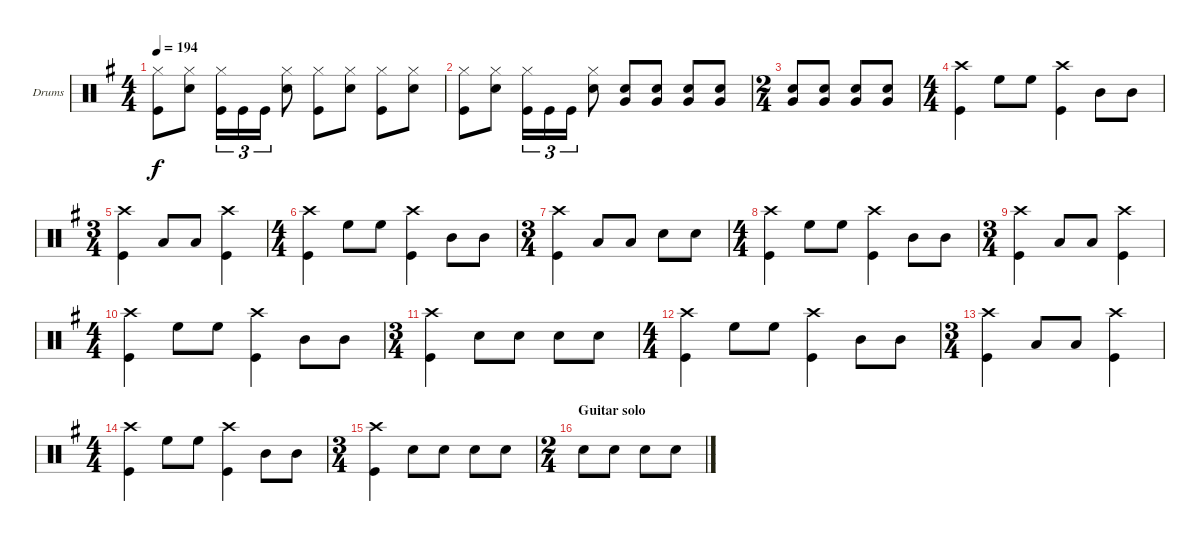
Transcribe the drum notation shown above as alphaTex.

\bracketExtendMode groupsimilarinstruments
\firstSystemTrackNameOrientation horizontal
\otherSystemsTrackNameOrientation horizontal
\track ("Drumkit" "Drums") {instrument percussion}
\staff {score}
\articulation defaults
\ts (4 4)
\tempo 194
\clef neutral
\scale
1.04288
\ks g
("Hi-Hat (closed)" "Kick (hit)").8{dy f} ("Hi-Hat (closed)" "Snare (hit) 2").8 ("Hi-Hat (closed)" "Kick (hit)").16{tu (3 2)} "Kick (hit)".16{tu (3 2)} "Kick (hit)".16{tu (3 2)} ("Hi-Hat (closed)" "Snare (hit) 2").8 ("Hi-Hat (closed)" "Kick (hit)").8 ("Hi-Hat (closed)" "Snare (hit) 2").8 ("Hi-Hat (closed)" "Kick (hit)").8 ("Hi-Hat (closed)" "Snare (hit) 2").8 |
\scale
0.957125 ("Hi-Hat (closed)" "Kick (hit)").8 ("Hi-Hat (closed)" "Snare (hit) 2").8 ("Hi-Hat (closed)" "Kick (hit)").16{tu (3 2)} "Kick (hit)".16{tu (3 2)} "Kick (hit)".16{tu (3 2)} ("Hi-Hat (closed)" "Snare (hit) 2").8 ("Very Low Tom (hit)" "Snare (hit) 2").8 ("Very Low Tom (hit)" "Snare (hit) 2").8 ("Very Low Tom (hit)" "Snare (hit) 2").8 ("Very Low Tom (hit)" "Snare (hit) 2").8 |
\ts (2 4)
\scale
1.07314 ("Very Low Tom (hit)" "Snare (hit) 2").8 ("Very Low Tom (hit)" "Snare (hit) 2").8 ("Very Low Tom (hit)" "Snare (hit) 2").8 ("Very Low Tom (hit)" "Snare (hit) 2").8 |
\ts (4 4)
\scale
0.92686 ("Crash high (hit)" "Kick (hit)").4 "High Floor Tom (hit)".8 "High Floor Tom (hit)".8 ("Crash high (hit)" "Kick (hit)").4 "Mid Tom (hit)".8 "Mid Tom (hit)".8 |
\ts (3 4)
\scale
1.07314 ("Crash high (hit)" "Kick (hit)").4 "Low Tom (hit)".8 "Low Tom (hit)".8 ("Crash high (hit)" "Kick (hit)").4 |
\ts (4 4)
\scale
0.92686 ("Crash high (hit)" "Kick (hit)").4 "High Floor Tom (hit)".8 "High Floor Tom (hit)".8 ("Crash high (hit)" "Kick (hit)").4 "Mid Tom (hit)".8 "Mid Tom (hit)".8 |
\ts (3 4)
\scale
1.07314 ("Crash high (hit)" "Kick (hit)").4 "Low Tom (hit)".8 "Low Tom (hit)".8 "Snare (hit) 2".8 "Snare (hit) 2".8 |
\ts (4 4)
\scale
0.92686 ("Crash high (hit)" "Kick (hit)").4 "High Floor Tom (hit)".8 "High Floor Tom (hit)".8 ("Crash high (hit)" "Kick (hit)").4 "Mid Tom (hit)".8 "Mid Tom (hit)".8 |
\ts (3 4)
\scale
1.07314 ("Crash high (hit)" "Kick (hit)").4 "Low Tom (hit)".8 "Low Tom (hit)".8 ("Crash high (hit)" "Kick (hit)").4 |
\ts (4 4)
\scale
0.92686 ("Crash high (hit)" "Kick (hit)").4 "High Floor Tom (hit)".8 "High Floor Tom (hit)".8 ("Crash high (hit)" "Kick (hit)").4 "Mid Tom (hit)".8 "Mid Tom (hit)".8 |
\ts (3 4)
\scale
1.07314 ("Crash high (hit)" "Kick (hit)").4 "Snare (hit) 2".8 "Snare (hit) 2".8 "Snare (hit) 2".8 "Snare (hit) 2".8 |
\ts (4 4)
\scale
0.92686 ("Crash high (hit)" "Kick (hit)").4 "High Floor Tom (hit)".8 "High Floor Tom (hit)".8 ("Crash high (hit)" "Kick (hit)").4 "Mid Tom (hit)".8 "Mid Tom (hit)".8 |
\ts (3 4)
\scale
1.07314 ("Crash high (hit)" "Kick (hit)").4 "Low Tom (hit)".8 "Low Tom (hit)".8 ("Crash high (hit)" "Kick (hit)").4 |
\ts (4 4)
\scale
0.92686 ("Crash high (hit)" "Kick (hit)").4 "High Floor Tom (hit)".8 "High Floor Tom (hit)".8 ("Crash high (hit)" "Kick (hit)").4 "Mid Tom (hit)".8 "Mid Tom (hit)".8 |
\ts (3 4)
\scale
1.07314 ("Crash high (hit)" "Kick (hit)").4 "Snare (hit) 2".8 "Snare (hit) 2".8 "Snare (hit) 2".8 "Snare (hit) 2".8 |
\ts (2 4)
\section ("" "Guitar solo")
\scale
0.92686 "Snare (hit) 2".8 "Snare (hit) 2".8 "Snare (hit) 2".8 "Snare (hit) 2".8
